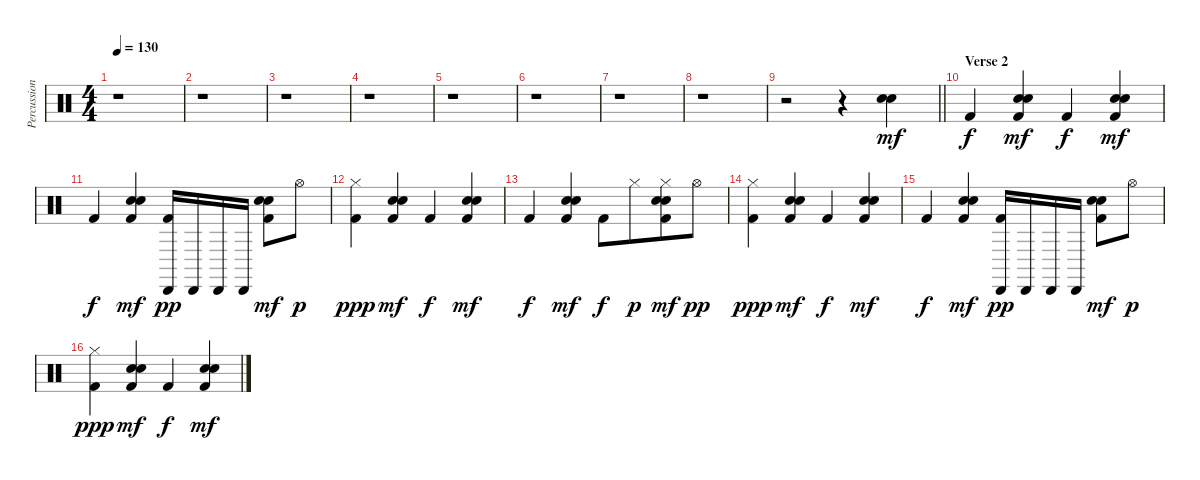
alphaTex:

\track ("Percussion" "Percussion") {instrument percussion}
\staff {score}
\articulation defaults
\ts (4 4)
\tempo 130
\clef neutral
\ks aminor
r.1{dy ppp} |
r.1 |
r.1 |
r.1 |
r.1 |
r.1 |
r.1 |
r.1 |
\barLineRight lightlight
r.2 r.4 ("Hand Clap (hit)" "Snare (hit) 2").4{dy mf} |
\section ("" "Verse 2")
"Kick (hit) 2".4{dy f} ("Hand Clap (hit)" "Snare (hit) 2" "Kick (hit) 2").4{dy mf} "Kick (hit) 2".4{dy f} ("Hand Clap (hit)" "Snare (hit) 2" "Kick (hit) 2").4{dy mf} |
"Kick (hit) 2".4{dy f} ("Hand Clap (hit)" "Snare (hit) 2" "Kick (hit) 2").4{dy mf} ("Cabasa (hit)" "Kick (hit) 2").16{dy pp} "Cabasa (hit)".16 "Cabasa (hit)".16 "Cabasa (hit)".16 ("Hand Clap (hit)" "Snare (hit) 2" "Kick (hit) 2").8{dy mf} "Hi-Hat (open)".8{dy p} |
("Hi-Hat (closed)" "Kick (hit) 2").4{dy ppp} ("Hand Clap (hit)" "Snare (hit) 2" "Kick (hit) 2").4{dy mf} "Kick (hit) 2".4{dy f} ("Hand Clap (hit)" "Snare (hit) 2" "Kick (hit) 2").4{dy mf} |
"Kick (hit) 2".4{dy f} ("Hand Clap (hit)" "Snare (hit) 2" "Kick (hit) 2").4{dy mf} "Kick (hit) 2".8{dy f} "Hi-Hat (closed)".8{dy p beam merge} ("Hi-Hat (closed)" "Hand Clap (hit)" "Snare (hit) 2" "Kick (hit) 2").8{dy mf} "Hi-Hat (open)".8{dy pp} |
("Hi-Hat (closed)" "Kick (hit) 2").4{dy ppp} ("Hand Clap (hit)" "Snare (hit) 2" "Kick (hit) 2").4{dy mf} "Kick (hit) 2".4{dy f} ("Hand Clap (hit)" "Snare (hit) 2" "Kick (hit) 2").4{dy mf} |
"Kick (hit) 2".4{dy f} ("Hand Clap (hit)" "Snare (hit) 2" "Kick (hit) 2").4{dy mf} ("Cabasa (hit)" "Kick (hit) 2").16{dy pp} "Cabasa (hit)".16 "Cabasa (hit)".16 "Cabasa (hit)".16 ("Hand Clap (hit)" "Snare (hit) 2" "Kick (hit) 2").8{dy mf} "Hi-Hat (open)".8{dy p} |
("Hi-Hat (closed)" "Kick (hit) 2").4{dy ppp} ("Hand Clap (hit)" "Snare (hit) 2" "Kick (hit) 2").4{dy mf} "Kick (hit) 2".4{dy f} ("Hand Clap (hit)" "Snare (hit) 2" "Kick (hit) 2").4{dy mf}
